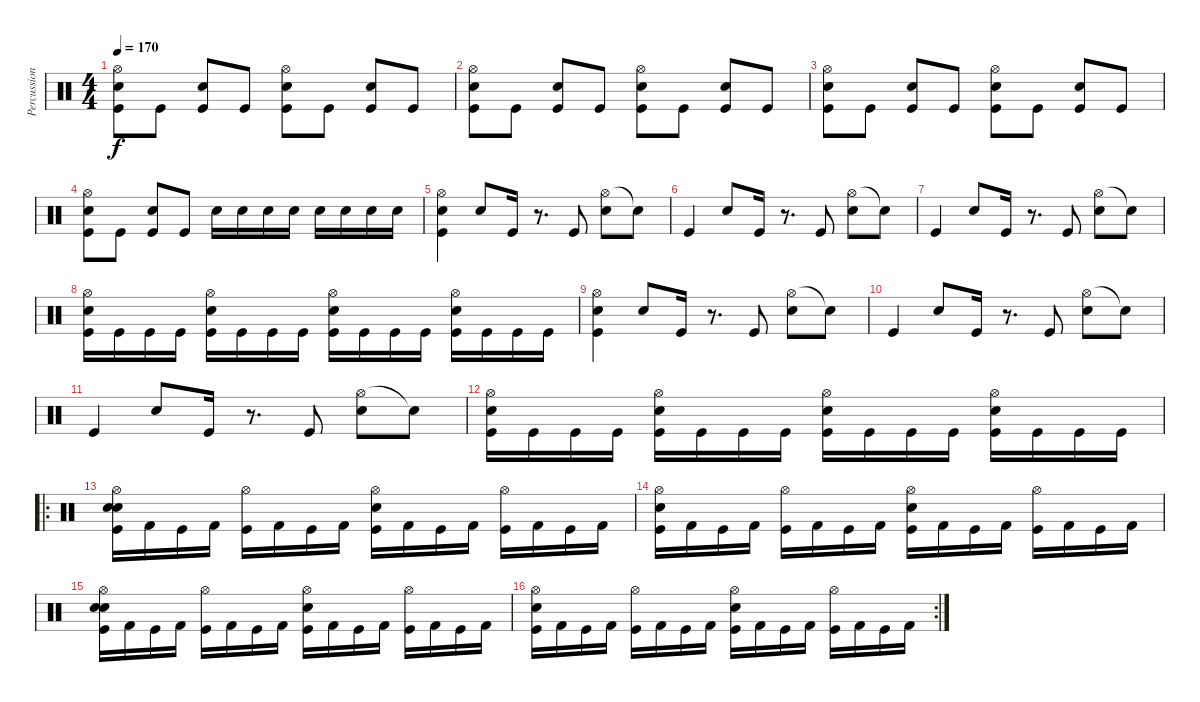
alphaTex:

\track ("Percussions" "Percussion") {instrument percussion}
\staff {score}
\articulation defaults
\ts (4 4)
\tempo 170
\clef neutral
\ks c
("Hi-Hat (open)" "Electric Snare (hit)" "Kick (hit)").8{dy f} "Kick (hit)".8 ("Electric Snare (hit)" "Kick (hit)").8 "Kick (hit)".8 ("Hi-Hat (open)" "Electric Snare (hit)" "Kick (hit)").8 "Kick (hit)".8 ("Electric Snare (hit)" "Kick (hit)").8 "Kick (hit)".8 |
("Hi-Hat (open)" "Electric Snare (hit)" "Kick (hit)").8 "Kick (hit)".8 ("Electric Snare (hit)" "Kick (hit)").8 "Kick (hit)".8 ("Hi-Hat (open)" "Electric Snare (hit)" "Kick (hit)").8 "Kick (hit)".8 ("Electric Snare (hit)" "Kick (hit)").8 "Kick (hit)".8 |
("Hi-Hat (open)" "Electric Snare (hit)" "Kick (hit)").8 "Kick (hit)".8 ("Electric Snare (hit)" "Kick (hit)").8 "Kick (hit)".8 ("Hi-Hat (open)" "Electric Snare (hit)" "Kick (hit)").8 "Kick (hit)".8 ("Electric Snare (hit)" "Kick (hit)").8 "Kick (hit)".8 |
("Hi-Hat (open)" "Electric Snare (hit)" "Kick (hit)").8 "Kick (hit)".8 ("Electric Snare (hit)" "Kick (hit)").8 "Kick (hit)".8 "Snare (hit) 2".16 "Snare (hit) 2".16 "Snare (hit) 2".16 "Snare (hit) 2".16 "Electric Snare (hit)".16 "Electric Snare (hit)".16 "Electric Snare (hit)".16 "Electric Snare (hit)".16 |
("Hi-Hat (open)" "Snare (hit) 2" "Kick (hit)").4 "Electric Snare (hit)".8 "Kick (hit)".16 r.8{d} "Kick (hit)".8 ("Hi-Hat (open)" "Electric Snare (hit)").8 "Snare (hit)"{t}.8 |
"Kick (hit)".4 "Electric Snare (hit)".8 "Kick (hit)".16 r.8{d} "Kick (hit)".8 ("Hi-Hat (open)" "Electric Snare (hit)").8 "Snare (hit)"{t}.8 |
"Kick (hit)".4 "Electric Snare (hit)".8 "Kick (hit)".16 r.8{d} "Kick (hit)".8 ("Hi-Hat (open)" "Electric Snare (hit)").8 "Snare (hit)"{t}.8 |
("Hi-Hat (open)" "Electric Snare (hit)" "Kick (hit)").16 "Kick (hit)".16 "Kick (hit)".16 "Kick (hit)".16 ("Hi-Hat (open)" "Electric Snare (hit)" "Kick (hit)").16 "Kick (hit)".16 "Kick (hit)".16 "Kick (hit)".16 ("Hi-Hat (open)" "Electric Snare (hit)" "Kick (hit)").16 "Kick (hit)".16 "Kick (hit)".16 "Kick (hit)".16 ("Hi-Hat (open)" "Electric Snare (hit)" "Kick (hit)").16 "Kick (hit)".16 "Kick (hit)".16 "Kick (hit)".16 |
("Hi-Hat (open)" "Snare (hit) 2" "Kick (hit)").4 "Electric Snare (hit)".8 "Kick (hit)".16 r.8{d} "Kick (hit)".8 ("Hi-Hat (open)" "Electric Snare (hit)").8 "Snare (hit)"{t}.8 |
"Kick (hit)".4 "Electric Snare (hit)".8 "Kick (hit)".16 r.8{d} "Kick (hit)".8 ("Hi-Hat (open)" "Electric Snare (hit)").8 "Snare (hit)"{t}.8 |
"Kick (hit)".4 "Electric Snare (hit)".8 "Kick (hit)".16 r.8{d} "Kick (hit)".8 ("Hi-Hat (open)" "Electric Snare (hit)").8 "Snare (hit)"{t}.8 |
("Hi-Hat (open)" "Electric Snare (hit)" "Kick (hit)").16 "Kick (hit)".16 "Kick (hit)".16 "Kick (hit)".16 ("Hi-Hat (open)" "Electric Snare (hit)" "Kick (hit)").16 "Kick (hit)".16 "Kick (hit)".16 "Kick (hit)".16 ("Hi-Hat (open)" "Electric Snare (hit)" "Kick (hit)").16 "Kick (hit)".16 "Kick (hit)".16 "Kick (hit)".16 ("Hi-Hat (open)" "Electric Snare (hit)" "Kick (hit)").16 "Kick (hit)".16 "Kick (hit)".16 "Kick (hit)".16 |
\ro
("Hi-Hat (open)" "Electric Snare (hit)" "Snare (hit) 2" "Kick (hit)").16 "Kick (hit) 2".16 "Kick (hit)".16 "Kick (hit) 2".16 ("Hi-Hat (open)" "Kick (hit)").16 "Kick (hit) 2".16 "Kick (hit)".16 "Kick (hit) 2".16 ("Hi-Hat (open)" "Electric Snare (hit)" "Kick (hit)").16 "Kick (hit) 2".16 "Kick (hit)".16 "Kick (hit) 2".16 ("Hi-Hat (open)" "Kick (hit)").16 "Kick (hit) 2".16 "Kick (hit)".16 "Kick (hit) 2".16 |
("Hi-Hat (open)" "Electric Snare (hit)" "Kick (hit)").16 "Kick (hit) 2".16 "Kick (hit)".16 "Kick (hit) 2".16 ("Hi-Hat (open)" "Kick (hit)").16 "Kick (hit) 2".16 "Kick (hit)".16 "Kick (hit) 2".16 ("Hi-Hat (open)" "Electric Snare (hit)" "Kick (hit)").16 "Kick (hit) 2".16 "Kick (hit)".16 "Kick (hit) 2".16 ("Hi-Hat (open)" "Kick (hit)").16 "Kick (hit) 2".16 "Kick (hit)".16 "Kick (hit) 2".16 |
("Hi-Hat (open)" "Electric Snare (hit)" "Snare (hit) 2" "Kick (hit)").16 "Kick (hit) 2".16 "Kick (hit)".16 "Kick (hit) 2".16 ("Hi-Hat (open)" "Kick (hit)").16 "Kick (hit) 2".16 "Kick (hit)".16 "Kick (hit) 2".16 ("Hi-Hat (open)" "Electric Snare (hit)" "Kick (hit)").16 "Kick (hit) 2".16 "Kick (hit)".16 "Kick (hit) 2".16 ("Hi-Hat (open)" "Kick (hit)").16 "Kick (hit) 2".16 "Kick (hit)".16 "Kick (hit) 2".16 |
\rc 2
("Hi-Hat (open)" "Electric Snare (hit)" "Kick (hit)").16 "Kick (hit) 2".16 "Kick (hit)".16 "Kick (hit) 2".16 ("Hi-Hat (open)" "Kick (hit)").16 "Kick (hit) 2".16 "Kick (hit)".16 "Kick (hit) 2".16 ("Hi-Hat (open)" "Electric Snare (hit)" "Kick (hit)").16 "Kick (hit) 2".16 "Kick (hit)".16 "Kick (hit) 2".16 ("Hi-Hat (open)" "Kick (hit)").16 "Kick (hit) 2".16 "Kick (hit)".16 "Kick (hit) 2".16
